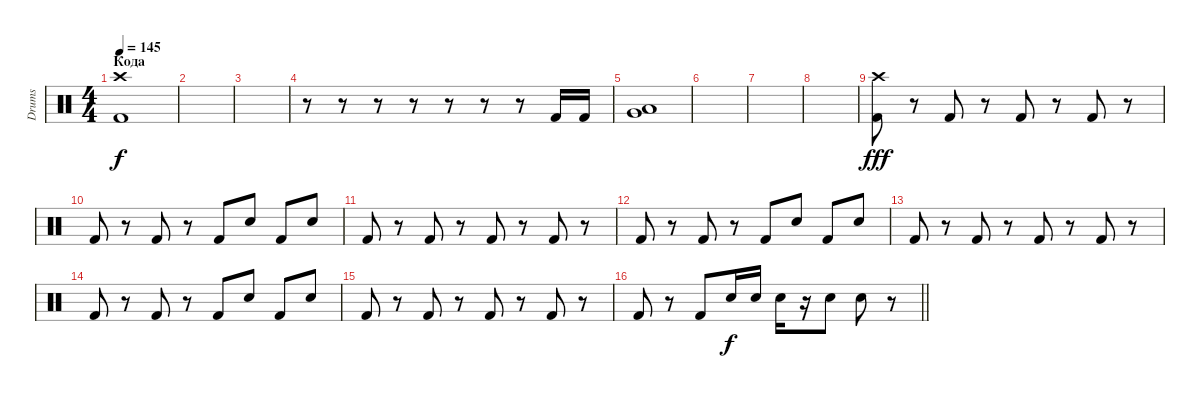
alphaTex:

\track ("Drums" "Drums") {instrument percussion}
\staff {score}
\articulation defaults
\ts (4 4)
\section ("" "Кода")
\tempo 145
\clef neutral
\ks c
("Crash high (hit)" "Kick (hit) 2").1{dy f} |
|
|
r.8 r.8 r.8 r.8 r.8 r.8 r.8 "Kick (hit) 2".16 "Kick (hit) 2".16 |
("Low Floor Tom (hit)" "Very Low Tom (hit)").1 |
|
|
|
("Crash high (hit)" "Kick (hit) 2").8{dy fff} r.8 "Kick (hit) 2".8 r.8 "Kick (hit) 2".8 r.8 "Kick (hit) 2".8 r.8 |
"Kick (hit) 2".8 r.8 "Kick (hit) 2".8 r.8 "Kick (hit) 2".8 "Electric Snare (hit)".8 "Kick (hit) 2".8 "Electric Snare (hit)".8 |
"Kick (hit) 2".8 r.8 "Kick (hit) 2".8 r.8 "Kick (hit) 2".8 r.8 "Kick (hit) 2".8 r.8 |
"Kick (hit) 2".8 r.8 "Kick (hit) 2".8 r.8 "Kick (hit) 2".8 "Electric Snare (hit)".8 "Kick (hit) 2".8 "Electric Snare (hit)".8 |
"Kick (hit) 2".8 r.8 "Kick (hit) 2".8 r.8 "Kick (hit) 2".8 r.8 "Kick (hit) 2".8 r.8 |
"Kick (hit) 2".8 r.8 "Kick (hit) 2".8 r.8 "Kick (hit) 2".8 "Electric Snare (hit)".8 "Kick (hit) 2".8 "Electric Snare (hit)".8 |
"Kick (hit) 2".8 r.8 "Kick (hit) 2".8 r.8 "Kick (hit) 2".8 r.8 "Kick (hit) 2".8 r.8 |
\barLineRight lightlight "Kick (hit) 2".8
r.8 "Kick (hit) 2".8 "Electric Snare (hit)".16{dy f} "Electric Snare (hit)".16 "Electric Snare (hit)".16 r.16 "Electric Snare (hit)".8 "Electric Snare (hit)".8 r.8
